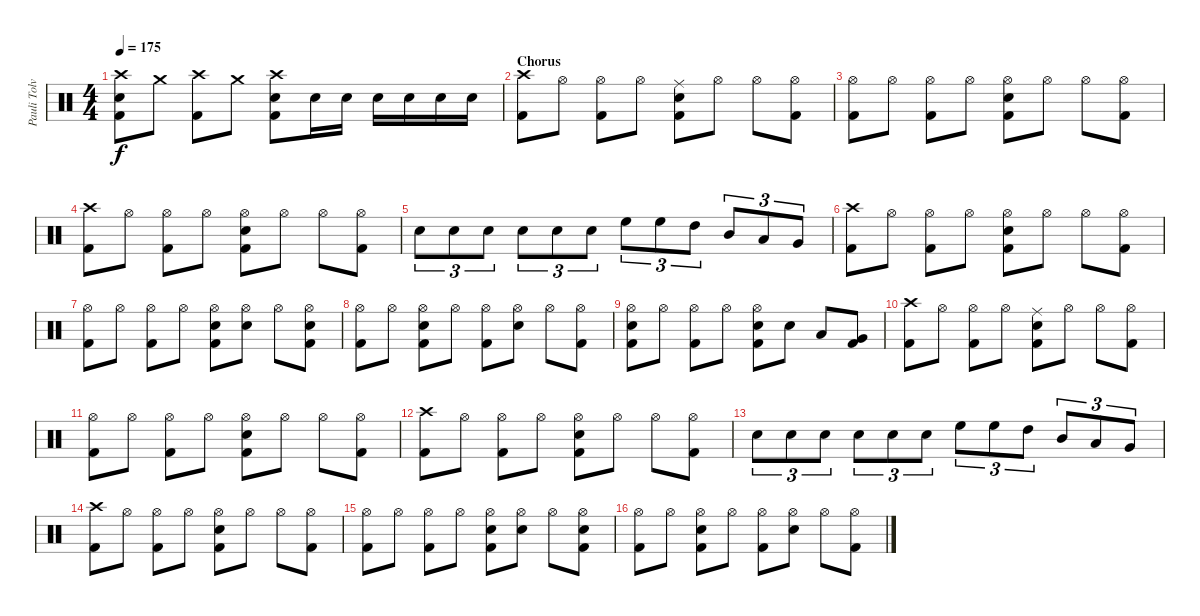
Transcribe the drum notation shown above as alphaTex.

\track ("Pauli Tolvanen-Drums" "Pauli Tolv") {instrument percussion}
\staff {score}
\articulation defaults
\ts (4 4)
\tempo 175
\clef neutral
\ks c
("Crash high (hit)" "Snare (hit) 2" "Kick (hit) 2").8{dy f} "Crash medium (hit)".8 ("Crash high (hit)" "Kick (hit) 2").8 "Crash medium (hit)".8 ("Crash high (hit)" "Snare (hit) 2" "Kick (hit) 2").8 "Snare (hit) 2".16 "Snare (hit) 2".16 "Snare (hit) 2".16 "Snare (hit) 2".16 "Snare (hit) 2".16 "Snare (hit) 2".16 |
\section ("" "Chorus")
("Crash high (hit)" "Kick (hit) 2").8 "Hi-Hat (open)".8 ("Hi-Hat (open)" "Kick (hit) 2").8 "Hi-Hat (open)".8 ("Ride (middle)" "Snare (hit) 2" "Kick (hit) 2").8 "Hi-Hat (open)".8 "Hi-Hat (open)".8 ("Hi-Hat (open)" "Kick (hit) 2").8 |
("Hi-Hat (open)" "Kick (hit) 2").8 "Hi-Hat (open)".8 ("Hi-Hat (open)" "Kick (hit) 2").8 "Hi-Hat (open)".8 ("Hi-Hat (open)" "Snare (hit) 2" "Kick (hit) 2").8 "Hi-Hat (open)".8 "Hi-Hat (open)".8 ("Hi-Hat (open)" "Kick (hit) 2").8 |
("Crash high (hit)" "Kick (hit) 2").8 "Hi-Hat (open)".8 ("Hi-Hat (open)" "Kick (hit) 2").8 "Hi-Hat (open)".8 ("Hi-Hat (open)" "Snare (hit) 2" "Kick (hit) 2").8 "Hi-Hat (open)".8 "Hi-Hat (open)".8 ("Hi-Hat (open)" "Kick (hit) 2").8 |
"Snare (hit) 2".8{tu (3 2)} "Snare (hit) 2".8{tu (3 2)} "Snare (hit) 2".8{tu (3 2)} "Snare (hit) 2".8{tu (3 2)} "Snare (hit) 2".8{tu (3 2)} "Snare (hit) 2".8{tu (3 2)} "High Floor Tom (hit)".8{tu (3 2)} "High Floor Tom (hit)".8{tu (3 2)} "High Tom (hit)".8{tu (3 2)} "Mid Tom (hit)".8{tu (3 2)} "Low Tom (hit)".8{tu (3 2)} "Very Low Tom (hit)".8{tu (3 2)} |
("Crash high (hit)" "Kick (hit) 2").8 "Hi-Hat (open)".8 ("Hi-Hat (open)" "Kick (hit) 2").8 "Hi-Hat (open)".8 ("Hi-Hat (open)" "Snare (hit) 2" "Kick (hit) 2").8 "Hi-Hat (open)".8 "Hi-Hat (open)".8 ("Hi-Hat (open)" "Kick (hit) 2").8 |
("Hi-Hat (open)" "Kick (hit) 2").8 "Hi-Hat (open)".8 ("Hi-Hat (open)" "Kick (hit) 2").8 "Hi-Hat (open)".8 ("Hi-Hat (open)" "Snare (hit) 2" "Kick (hit) 2").8 ("Hi-Hat (open)" "Snare (hit) 2").8 "Hi-Hat (open)".8 ("Hi-Hat (open)" "Snare (hit) 2" "Kick (hit) 2").8 |
("Hi-Hat (open)" "Kick (hit) 2").8 "Hi-Hat (open)".8 ("Hi-Hat (open)" "Snare (hit) 2" "Kick (hit) 2").8 "Hi-Hat (open)".8 ("Hi-Hat (open)" "Kick (hit) 2").8 ("Hi-Hat (open)" "Snare (hit) 2").8 "Hi-Hat (open)".8 ("Hi-Hat (open)" "Kick (hit) 2").8 |
("Hi-Hat (open)" "Snare (hit) 2" "Kick (hit) 2").8 "Hi-Hat (open)".8 ("Hi-Hat (open)" "Kick (hit) 2").8 "Hi-Hat (open)".8 ("Hi-Hat (open)" "Snare (hit) 2" "Kick (hit) 2").8 "Snare (hit) 2".8 "Low Tom (hit)".8 ("Very Low Tom (hit)" "Kick (hit) 2").8 |
("Crash high (hit)" "Kick (hit) 2").8 "Hi-Hat (open)".8 ("Hi-Hat (open)" "Kick (hit) 2").8 "Hi-Hat (open)".8 ("Ride (middle)" "Snare (hit) 2" "Kick (hit) 2").8 "Hi-Hat (open)".8 "Hi-Hat (open)".8 ("Hi-Hat (open)" "Kick (hit) 2").8 |
("Hi-Hat (open)" "Kick (hit) 2").8 "Hi-Hat (open)".8 ("Hi-Hat (open)" "Kick (hit) 2").8 "Hi-Hat (open)".8 ("Hi-Hat (open)" "Snare (hit) 2" "Kick (hit) 2").8 "Hi-Hat (open)".8 "Hi-Hat (open)".8 ("Hi-Hat (open)" "Kick (hit) 2").8 |
("Crash high (hit)" "Kick (hit) 2").8 "Hi-Hat (open)".8 ("Hi-Hat (open)" "Kick (hit) 2").8 "Hi-Hat (open)".8 ("Hi-Hat (open)" "Snare (hit) 2" "Kick (hit) 2").8 "Hi-Hat (open)".8 "Hi-Hat (open)".8 ("Hi-Hat (open)" "Kick (hit) 2").8 |
"Snare (hit) 2".8{tu (3 2)} "Snare (hit) 2".8{tu (3 2)} "Snare (hit) 2".8{tu (3 2)} "Snare (hit) 2".8{tu (3 2)} "Snare (hit) 2".8{tu (3 2)} "Snare (hit) 2".8{tu (3 2)} "High Floor Tom (hit)".8{tu (3 2)} "High Floor Tom (hit)".8{tu (3 2)} "High Tom (hit)".8{tu (3 2)} "Mid Tom (hit)".8{tu (3 2)} "Low Tom (hit)".8{tu (3 2)} "Very Low Tom (hit)".8{tu (3 2)} |
("Crash high (hit)" "Kick (hit) 2").8 "Hi-Hat (open)".8 ("Hi-Hat (open)" "Kick (hit) 2").8 "Hi-Hat (open)".8 ("Hi-Hat (open)" "Snare (hit) 2" "Kick (hit) 2").8 "Hi-Hat (open)".8 "Hi-Hat (open)".8 ("Hi-Hat (open)" "Kick (hit) 2").8 |
("Hi-Hat (open)" "Kick (hit) 2").8 "Hi-Hat (open)".8 ("Hi-Hat (open)" "Kick (hit) 2").8 "Hi-Hat (open)".8 ("Hi-Hat (open)" "Snare (hit) 2" "Kick (hit) 2").8 ("Hi-Hat (open)" "Snare (hit) 2").8 "Hi-Hat (open)".8 ("Hi-Hat (open)" "Snare (hit) 2" "Kick (hit) 2").8 |
("Hi-Hat (open)" "Kick (hit) 2").8 "Hi-Hat (open)".8 ("Hi-Hat (open)" "Snare (hit) 2" "Kick (hit) 2").8 "Hi-Hat (open)".8 ("Hi-Hat (open)" "Kick (hit) 2").8 ("Hi-Hat (open)" "Snare (hit) 2").8 "Hi-Hat (open)".8 ("Hi-Hat (open)" "Kick (hit) 2").8
